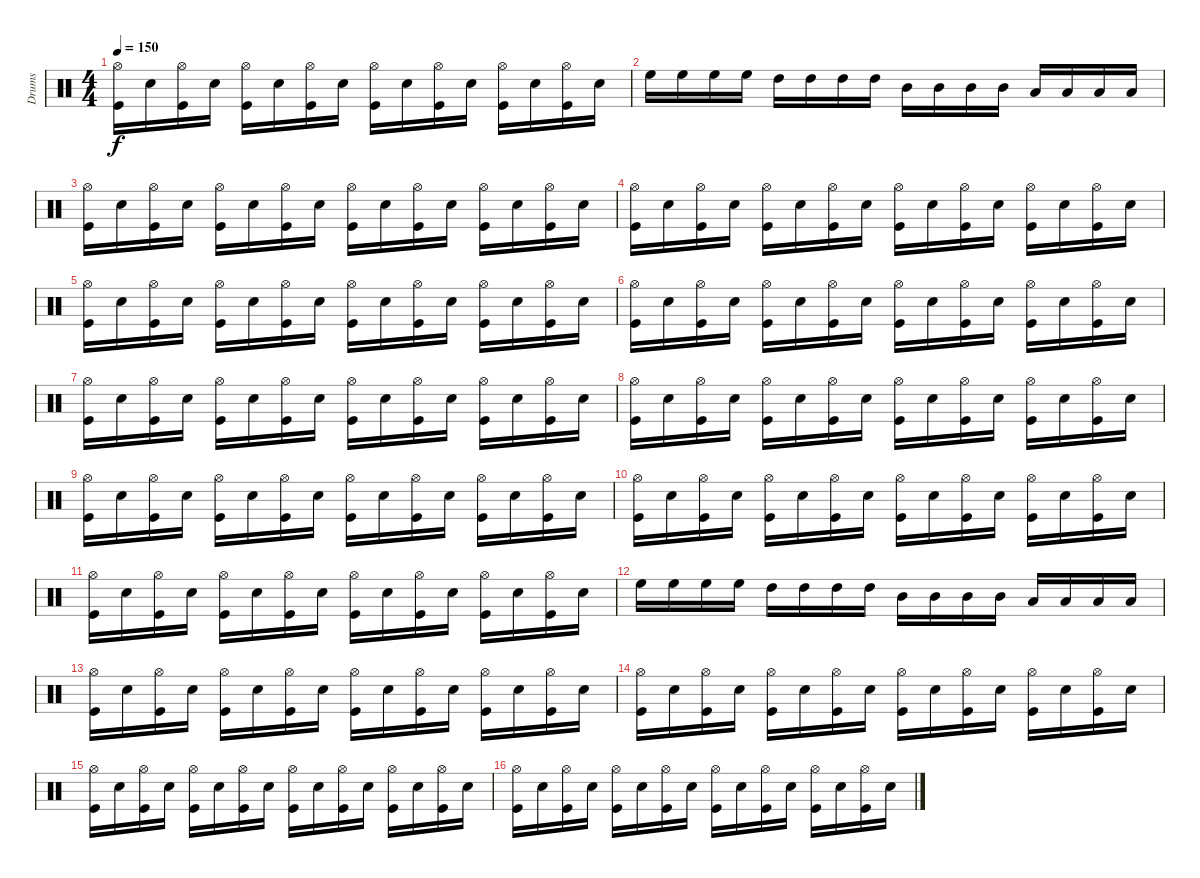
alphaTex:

\track ("Drums" "Drums") {instrument percussion}
\staff {score}
\articulation defaults
\ts (4 4)
\tempo 150
\clef neutral
\ks c
("Hi-Hat (open)" "Kick (hit)").16{dy f} "Snare (hit) 2".16 ("Hi-Hat (open)" "Kick (hit)").16 "Snare (hit) 2".16 ("Hi-Hat (open)" "Kick (hit)").16 "Snare (hit) 2".16 ("Hi-Hat (open)" "Kick (hit)").16 "Snare (hit) 2".16 ("Hi-Hat (open)" "Kick (hit)").16 "Snare (hit) 2".16 ("Hi-Hat (open)" "Kick (hit)").16 "Snare (hit) 2".16 ("Hi-Hat (open)" "Kick (hit)").16 "Snare (hit) 2".16 ("Hi-Hat (open)" "Kick (hit)").16 "Snare (hit) 2".16 |
"High Floor Tom (hit)".16 "High Floor Tom (hit)".16 "High Floor Tom (hit)".16 "High Floor Tom (hit)".16 "High Tom (hit)".16 "High Tom (hit)".16 "High Tom (hit)".16 "High Tom (hit)".16 "Mid Tom (hit)".16 "Mid Tom (hit)".16 "Mid Tom (hit)".16 "Mid Tom (hit)".16 "Low Tom (hit)".16 "Low Tom (hit)".16 "Low Tom (hit)".16 "Low Tom (hit)".16 |
("Hi-Hat (open)" "Kick (hit)").16 "Snare (hit) 2".16 ("Hi-Hat (open)" "Kick (hit)").16 "Snare (hit) 2".16 ("Hi-Hat (open)" "Kick (hit)").16 "Snare (hit) 2".16 ("Hi-Hat (open)" "Kick (hit)").16 "Snare (hit) 2".16 ("Hi-Hat (open)" "Kick (hit)").16 "Snare (hit) 2".16 ("Hi-Hat (open)" "Kick (hit)").16 "Snare (hit) 2".16 ("Hi-Hat (open)" "Kick (hit)").16 "Snare (hit) 2".16 ("Hi-Hat (open)" "Kick (hit)").16 "Snare (hit) 2".16 |
("Hi-Hat (open)" "Kick (hit)").16 "Snare (hit) 2".16 ("Hi-Hat (open)" "Kick (hit)").16 "Snare (hit) 2".16 ("Hi-Hat (open)" "Kick (hit)").16 "Snare (hit) 2".16 ("Hi-Hat (open)" "Kick (hit)").16 "Snare (hit) 2".16 ("Hi-Hat (open)" "Kick (hit)").16 "Snare (hit) 2".16 ("Hi-Hat (open)" "Kick (hit)").16 "Snare (hit) 2".16 ("Hi-Hat (open)" "Kick (hit)").16 "Snare (hit) 2".16 ("Hi-Hat (open)" "Kick (hit)").16 "Snare (hit) 2".16 |
("Hi-Hat (open)" "Kick (hit)").16 "Snare (hit) 2".16 ("Hi-Hat (open)" "Kick (hit)").16 "Snare (hit) 2".16 ("Hi-Hat (open)" "Kick (hit)").16 "Snare (hit) 2".16 ("Hi-Hat (open)" "Kick (hit)").16 "Snare (hit) 2".16 ("Hi-Hat (open)" "Kick (hit)").16 "Snare (hit) 2".16 ("Hi-Hat (open)" "Kick (hit)").16 "Snare (hit) 2".16 ("Hi-Hat (open)" "Kick (hit)").16 "Snare (hit) 2".16 ("Hi-Hat (open)" "Kick (hit)").16 "Snare (hit) 2".16 |
("Hi-Hat (open)" "Kick (hit)").16 "Snare (hit) 2".16 ("Hi-Hat (open)" "Kick (hit)").16 "Snare (hit) 2".16 ("Hi-Hat (open)" "Kick (hit)").16 "Snare (hit) 2".16 ("Hi-Hat (open)" "Kick (hit)").16 "Snare (hit) 2".16 ("Hi-Hat (open)" "Kick (hit)").16 "Snare (hit) 2".16 ("Hi-Hat (open)" "Kick (hit)").16 "Snare (hit) 2".16 ("Hi-Hat (open)" "Kick (hit)").16 "Snare (hit) 2".16 ("Hi-Hat (open)" "Kick (hit)").16 "Snare (hit) 2".16 |
("Hi-Hat (open)" "Kick (hit)").16 "Snare (hit) 2".16 ("Hi-Hat (open)" "Kick (hit)").16 "Snare (hit) 2".16 ("Hi-Hat (open)" "Kick (hit)").16 "Snare (hit) 2".16 ("Hi-Hat (open)" "Kick (hit)").16 "Snare (hit) 2".16 ("Hi-Hat (open)" "Kick (hit)").16 "Snare (hit) 2".16 ("Hi-Hat (open)" "Kick (hit)").16 "Snare (hit) 2".16 ("Hi-Hat (open)" "Kick (hit)").16 "Snare (hit) 2".16 ("Hi-Hat (open)" "Kick (hit)").16 "Snare (hit) 2".16 |
("Hi-Hat (open)" "Kick (hit)").16 "Snare (hit) 2".16 ("Hi-Hat (open)" "Kick (hit)").16 "Snare (hit) 2".16 ("Hi-Hat (open)" "Kick (hit)").16 "Snare (hit) 2".16 ("Hi-Hat (open)" "Kick (hit)").16 "Snare (hit) 2".16 ("Hi-Hat (open)" "Kick (hit)").16 "Snare (hit) 2".16 ("Hi-Hat (open)" "Kick (hit)").16 "Snare (hit) 2".16 ("Hi-Hat (open)" "Kick (hit)").16 "Snare (hit) 2".16 ("Hi-Hat (open)" "Kick (hit)").16 "Snare (hit) 2".16 |
("Hi-Hat (open)" "Kick (hit)").16 "Snare (hit) 2".16 ("Hi-Hat (open)" "Kick (hit)").16 "Snare (hit) 2".16 ("Hi-Hat (open)" "Kick (hit)").16 "Snare (hit) 2".16 ("Hi-Hat (open)" "Kick (hit)").16 "Snare (hit) 2".16 ("Hi-Hat (open)" "Kick (hit)").16 "Snare (hit) 2".16 ("Hi-Hat (open)" "Kick (hit)").16 "Snare (hit) 2".16 ("Hi-Hat (open)" "Kick (hit)").16 "Snare (hit) 2".16 ("Hi-Hat (open)" "Kick (hit)").16 "Snare (hit) 2".16 |
("Hi-Hat (open)" "Kick (hit)").16 "Snare (hit) 2".16 ("Hi-Hat (open)" "Kick (hit)").16 "Snare (hit) 2".16 ("Hi-Hat (open)" "Kick (hit)").16 "Snare (hit) 2".16 ("Hi-Hat (open)" "Kick (hit)").16 "Snare (hit) 2".16 ("Hi-Hat (open)" "Kick (hit)").16 "Snare (hit) 2".16 ("Hi-Hat (open)" "Kick (hit)").16 "Snare (hit) 2".16 ("Hi-Hat (open)" "Kick (hit)").16 "Snare (hit) 2".16 ("Hi-Hat (open)" "Kick (hit)").16 "Snare (hit) 2".16 |
("Hi-Hat (open)" "Kick (hit)").16 "Snare (hit) 2".16 ("Hi-Hat (open)" "Kick (hit)").16 "Snare (hit) 2".16 ("Hi-Hat (open)" "Kick (hit)").16 "Snare (hit) 2".16 ("Hi-Hat (open)" "Kick (hit)").16 "Snare (hit) 2".16 ("Hi-Hat (open)" "Kick (hit)").16 "Snare (hit) 2".16 ("Hi-Hat (open)" "Kick (hit)").16 "Snare (hit) 2".16 ("Hi-Hat (open)" "Kick (hit)").16 "Snare (hit) 2".16 ("Hi-Hat (open)" "Kick (hit)").16 "Snare (hit) 2".16 |
"High Floor Tom (hit)".16 "High Floor Tom (hit)".16 "High Floor Tom (hit)".16 "High Floor Tom (hit)".16 "High Tom (hit)".16 "High Tom (hit)".16 "High Tom (hit)".16 "High Tom (hit)".16 "Mid Tom (hit)".16 "Mid Tom (hit)".16 "Mid Tom (hit)".16 "Mid Tom (hit)".16 "Low Tom (hit)".16 "Low Tom (hit)".16 "Low Tom (hit)".16 "Low Tom (hit)".16 |
("Hi-Hat (open)" "Kick (hit)").16 "Snare (hit) 2".16 ("Hi-Hat (open)" "Kick (hit)").16 "Snare (hit) 2".16 ("Hi-Hat (open)" "Kick (hit)").16 "Snare (hit) 2".16 ("Hi-Hat (open)" "Kick (hit)").16 "Snare (hit) 2".16 ("Hi-Hat (open)" "Kick (hit)").16 "Snare (hit) 2".16 ("Hi-Hat (open)" "Kick (hit)").16 "Snare (hit) 2".16 ("Hi-Hat (open)" "Kick (hit)").16 "Snare (hit) 2".16 ("Hi-Hat (open)" "Kick (hit)").16 "Snare (hit) 2".16 |
("Hi-Hat (open)" "Kick (hit)").16 "Snare (hit) 2".16 ("Hi-Hat (open)" "Kick (hit)").16 "Snare (hit) 2".16 ("Hi-Hat (open)" "Kick (hit)").16 "Snare (hit) 2".16 ("Hi-Hat (open)" "Kick (hit)").16 "Snare (hit) 2".16 ("Hi-Hat (open)" "Kick (hit)").16 "Snare (hit) 2".16 ("Hi-Hat (open)" "Kick (hit)").16 "Snare (hit) 2".16 ("Hi-Hat (open)" "Kick (hit)").16 "Snare (hit) 2".16 ("Hi-Hat (open)" "Kick (hit)").16 "Snare (hit) 2".16 |
("Hi-Hat (open)" "Kick (hit)").16 "Snare (hit) 2".16 ("Hi-Hat (open)" "Kick (hit)").16 "Snare (hit) 2".16 ("Hi-Hat (open)" "Kick (hit)").16 "Snare (hit) 2".16 ("Hi-Hat (open)" "Kick (hit)").16 "Snare (hit) 2".16 ("Hi-Hat (open)" "Kick (hit)").16 "Snare (hit) 2".16 ("Hi-Hat (open)" "Kick (hit)").16 "Snare (hit) 2".16 ("Hi-Hat (open)" "Kick (hit)").16 "Snare (hit) 2".16 ("Hi-Hat (open)" "Kick (hit)").16 "Snare (hit) 2".16 |
("Hi-Hat (open)" "Kick (hit)").16 "Snare (hit) 2".16 ("Hi-Hat (open)" "Kick (hit)").16 "Snare (hit) 2".16 ("Hi-Hat (open)" "Kick (hit)").16 "Snare (hit) 2".16 ("Hi-Hat (open)" "Kick (hit)").16 "Snare (hit) 2".16 ("Hi-Hat (open)" "Kick (hit)").16 "Snare (hit) 2".16 ("Hi-Hat (open)" "Kick (hit)").16 "Snare (hit) 2".16 ("Hi-Hat (open)" "Kick (hit)").16 "Snare (hit) 2".16 ("Hi-Hat (open)" "Kick (hit)").16 "Snare (hit) 2".16
